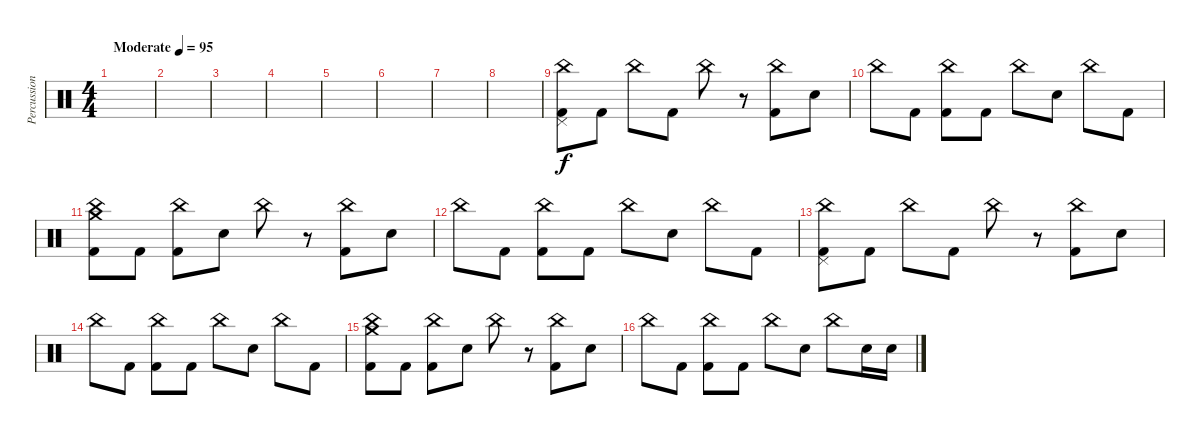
\track ("Percussion" "Percussion") {instrument percussion}
\staff {score}
\articulation defaults
\ts (4 4)
\tempo (95 "Moderate")
\clef neutral
\ks c
|
|
|
|
|
|
|
|
("China (hit)" "Pedal Hi-Hat (hit)" "Kick (hit) 2").8 "Kick (hit) 2".8 "China (hit)".8 "Kick (hit) 2".8 "China (hit)".8 r.8 ("China (hit)" "Kick (hit) 2").8 "Electric Snare (hit)".8 |
"China (hit)".8 "Kick (hit) 2".8 ("China (hit)" "Kick (hit) 2").8 "Kick (hit) 2".8 "China (hit)".8 "Electric Snare (hit)".8 "China (hit)".8 "Kick (hit) 2".8 |
("China (hit)" "Crash medium (hit)" "Kick (hit) 2").8 "Kick (hit) 2".8 ("China (hit)" "Kick (hit) 2").8 "Electric Snare (hit)".8 "China (hit)".8 r.8 ("China (hit)" "Kick (hit) 2").8 "Electric Snare (hit)".8 |
"China (hit)".8 "Kick (hit) 2".8 ("China (hit)" "Kick (hit) 2").8 "Kick (hit) 2".8 "China (hit)".8 "Electric Snare (hit)".8 "China (hit)".8 "Kick (hit) 2".8 |
("China (hit)" "Pedal Hi-Hat (hit)" "Kick (hit) 2").8 "Kick (hit) 2".8 "China (hit)".8 "Kick (hit) 2".8 "China (hit)".8 r.8 ("China (hit)" "Kick (hit) 2").8 "Electric Snare (hit)".8 |
"China (hit)".8 "Kick (hit) 2".8 ("China (hit)" "Kick (hit) 2").8 "Kick (hit) 2".8 "China (hit)".8 "Electric Snare (hit)".8 "China (hit)".8 "Kick (hit) 2".8 |
("China (hit)" "Crash medium (hit)" "Kick (hit) 2").8 "Kick (hit) 2".8 ("China (hit)" "Kick (hit) 2").8 "Electric Snare (hit)".8 "China (hit)".8 r.8 ("China (hit)" "Kick (hit) 2").8 "Electric Snare (hit)".8 |
"China (hit)".8 "Kick (hit) 2".8 ("China (hit)" "Kick (hit) 2").8 "Kick (hit) 2".8 "China (hit)".8 "Electric Snare (hit)".8 "China (hit)".8 "Electric Snare (hit)".16 "Electric Snare (hit)".16
